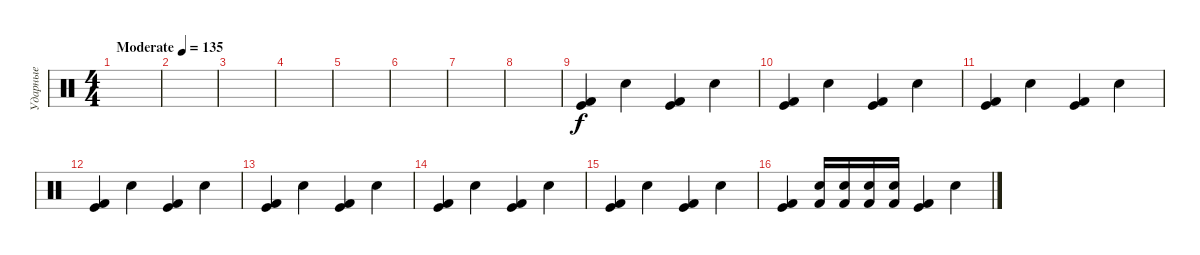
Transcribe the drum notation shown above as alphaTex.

\track ("Ударные" "Ударные") {instrument percussion}
\staff {score}
\articulation defaults
\ts (4 4)
\tempo (135 "Moderate")
\clef neutral
\ks c
|
|
|
|
|
|
|
|
("Kick (hit) 2" "Kick (hit)").4 "Electric Snare (hit)".4 ("Kick (hit) 2" "Kick (hit)").4 "Electric Snare (hit)".4 |
("Kick (hit) 2" "Kick (hit)").4 "Electric Snare (hit)".4 ("Kick (hit) 2" "Kick (hit)").4 "Electric Snare (hit)".4 |
("Kick (hit) 2" "Kick (hit)").4 "Electric Snare (hit)".4 ("Kick (hit) 2" "Kick (hit)").4 "Electric Snare (hit)".4 |
("Kick (hit) 2" "Kick (hit)").4 "Electric Snare (hit)".4 ("Kick (hit) 2" "Kick (hit)").4 "Electric Snare (hit)".4 |
("Kick (hit) 2" "Kick (hit)").4 "Electric Snare (hit)".4 ("Kick (hit) 2" "Kick (hit)").4 "Electric Snare (hit)".4 |
("Kick (hit) 2" "Kick (hit)").4 "Electric Snare (hit)".4 ("Kick (hit) 2" "Kick (hit)").4 "Electric Snare (hit)".4 |
("Kick (hit) 2" "Kick (hit)").4 "Electric Snare (hit)".4 ("Kick (hit) 2" "Kick (hit)").4 "Electric Snare (hit)".4 |
("Kick (hit) 2" "Kick (hit)").4 ("Electric Snare (hit)" "Kick (hit) 2").16 ("Electric Snare (hit)" "Kick (hit) 2").16 ("Electric Snare (hit)" "Kick (hit) 2").16 ("Electric Snare (hit)" "Kick (hit) 2").16 ("Kick (hit) 2" "Kick (hit)").4 "Electric Snare (hit)".4
